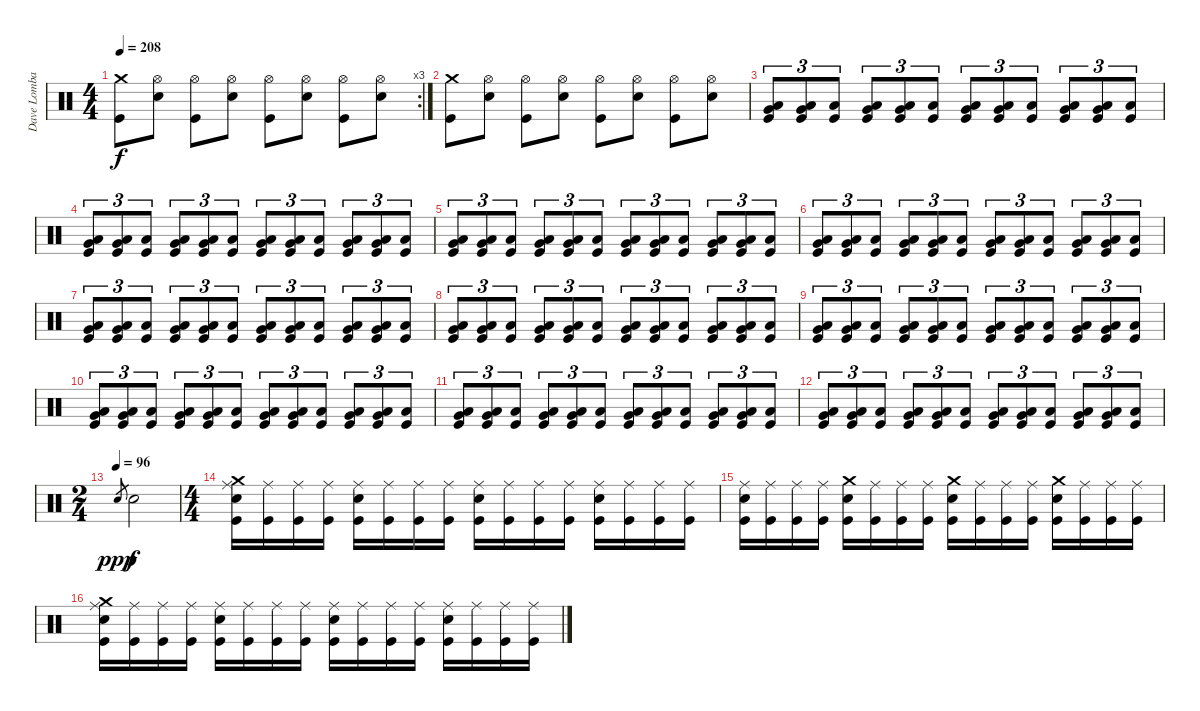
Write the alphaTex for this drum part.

\track ("Dave Lombardo (Drum)" "Dave Lomba") {instrument percussion}
\staff {score}
\articulation defaults
\rc 3
\ts (4 4)
\tempo 208
\clef neutral
\ks c
("Crash medium (hit)" "Kick (hit)").8{dy f} ("Snare (hit) 2" "Hi-Hat (open)").8 ("Kick (hit)" "Hi-Hat (open)").8 ("Snare (hit) 2" "Hi-Hat (open)").8 ("Kick (hit)" "Hi-Hat (open)").8 ("Snare (hit) 2" "Hi-Hat (open)").8 ("Kick (hit)" "Hi-Hat (open)").8 ("Snare (hit) 2" "Hi-Hat (open)").8 |
("Crash medium (hit)" "Kick (hit)").8 ("Snare (hit) 2" "Hi-Hat (open)").8 ("Kick (hit)" "Hi-Hat (open)").8 ("Snare (hit) 2" "Hi-Hat (open)").8 ("Kick (hit)" "Hi-Hat (open)").8 ("Snare (hit) 2" "Hi-Hat (open)").8 ("Kick (hit)" "Hi-Hat (open)").8 ("Snare (hit) 2" "Hi-Hat (open)").8 |
("Kick (hit)" "Very Low Tom (hit)" "Low Floor Tom (hit)").8{tu (3 2)} ("Kick (hit)" "Very Low Tom (hit)" "Low Floor Tom (hit)").8{tu (3 2)} ("Kick (hit)" "Low Floor Tom (hit)").8{tu (3 2)} ("Kick (hit)" "Very Low Tom (hit)" "Low Floor Tom (hit)").8{tu (3 2)} ("Kick (hit)" "Very Low Tom (hit)" "Low Floor Tom (hit)").8{tu (3 2)} ("Kick (hit)" "Low Floor Tom (hit)").8{tu (3 2)} ("Kick (hit)" "Very Low Tom (hit)" "Low Floor Tom (hit)").8{tu (3 2)} ("Kick (hit)" "Very Low Tom (hit)" "Low Floor Tom (hit)").8{tu (3 2)} ("Kick (hit)" "Low Floor Tom (hit)").8{tu (3 2)} ("Kick (hit)" "Very Low Tom (hit)" "Low Floor Tom (hit)").8{tu (3 2)} ("Kick (hit)" "Very Low Tom (hit)" "Low Floor Tom (hit)").8{tu (3 2)} ("Kick (hit)" "Low Floor Tom (hit)").8{tu (3 2)} |
("Kick (hit)" "Very Low Tom (hit)" "Low Floor Tom (hit)").8{tu (3 2)} ("Kick (hit)" "Very Low Tom (hit)" "Low Floor Tom (hit)").8{tu (3 2)} ("Kick (hit)" "Low Floor Tom (hit)").8{tu (3 2)} ("Kick (hit)" "Very Low Tom (hit)" "Low Floor Tom (hit)").8{tu (3 2)} ("Kick (hit)" "Very Low Tom (hit)" "Low Floor Tom (hit)").8{tu (3 2)} ("Kick (hit)" "Low Floor Tom (hit)").8{tu (3 2)} ("Kick (hit)" "Very Low Tom (hit)" "Low Floor Tom (hit)").8{tu (3 2)} ("Kick (hit)" "Very Low Tom (hit)" "Low Floor Tom (hit)").8{tu (3 2)} ("Kick (hit)" "Low Floor Tom (hit)").8{tu (3 2)} ("Kick (hit)" "Very Low Tom (hit)" "Low Floor Tom (hit)").8{tu (3 2)} ("Kick (hit)" "Very Low Tom (hit)" "Low Floor Tom (hit)").8{tu (3 2)} ("Kick (hit)" "Low Floor Tom (hit)").8{tu (3 2)} |
("Kick (hit)" "Very Low Tom (hit)" "Low Floor Tom (hit)").8{tu (3 2)} ("Kick (hit)" "Very Low Tom (hit)" "Low Floor Tom (hit)").8{tu (3 2)} ("Kick (hit)" "Low Floor Tom (hit)").8{tu (3 2)} ("Kick (hit)" "Very Low Tom (hit)" "Low Floor Tom (hit)").8{tu (3 2)} ("Kick (hit)" "Very Low Tom (hit)" "Low Floor Tom (hit)").8{tu (3 2)} ("Kick (hit)" "Low Floor Tom (hit)").8{tu (3 2)} ("Kick (hit)" "Very Low Tom (hit)" "Low Floor Tom (hit)").8{tu (3 2)} ("Kick (hit)" "Very Low Tom (hit)" "Low Floor Tom (hit)").8{tu (3 2)} ("Kick (hit)" "Low Floor Tom (hit)").8{tu (3 2)} ("Kick (hit)" "Very Low Tom (hit)" "Low Floor Tom (hit)").8{tu (3 2)} ("Kick (hit)" "Very Low Tom (hit)" "Low Floor Tom (hit)").8{tu (3 2)} ("Kick (hit)" "Low Floor Tom (hit)").8{tu (3 2)} |
("Kick (hit)" "Very Low Tom (hit)" "Low Floor Tom (hit)").8{tu (3 2)} ("Kick (hit)" "Very Low Tom (hit)" "Low Floor Tom (hit)").8{tu (3 2)} ("Kick (hit)" "Low Floor Tom (hit)").8{tu (3 2)} ("Kick (hit)" "Very Low Tom (hit)" "Low Floor Tom (hit)").8{tu (3 2)} ("Kick (hit)" "Very Low Tom (hit)" "Low Floor Tom (hit)").8{tu (3 2)} ("Kick (hit)" "Low Floor Tom (hit)").8{tu (3 2)} ("Kick (hit)" "Very Low Tom (hit)" "Low Floor Tom (hit)").8{tu (3 2)} ("Kick (hit)" "Very Low Tom (hit)" "Low Floor Tom (hit)").8{tu (3 2)} ("Kick (hit)" "Low Floor Tom (hit)").8{tu (3 2)} ("Kick (hit)" "Very Low Tom (hit)" "Low Floor Tom (hit)").8{tu (3 2)} ("Kick (hit)" "Very Low Tom (hit)" "Low Floor Tom (hit)").8{tu (3 2)} ("Kick (hit)" "Low Floor Tom (hit)").8{tu (3 2)} |
("Kick (hit)" "Very Low Tom (hit)" "Low Floor Tom (hit)").8{tu (3 2)} ("Kick (hit)" "Very Low Tom (hit)" "Low Floor Tom (hit)").8{tu (3 2)} ("Kick (hit)" "Low Floor Tom (hit)").8{tu (3 2)} ("Kick (hit)" "Very Low Tom (hit)" "Low Floor Tom (hit)").8{tu (3 2)} ("Kick (hit)" "Very Low Tom (hit)" "Low Floor Tom (hit)").8{tu (3 2)} ("Kick (hit)" "Low Floor Tom (hit)").8{tu (3 2)} ("Kick (hit)" "Very Low Tom (hit)" "Low Floor Tom (hit)").8{tu (3 2)} ("Kick (hit)" "Very Low Tom (hit)" "Low Floor Tom (hit)").8{tu (3 2)} ("Kick (hit)" "Low Floor Tom (hit)").8{tu (3 2)} ("Kick (hit)" "Very Low Tom (hit)" "Low Floor Tom (hit)").8{tu (3 2)} ("Kick (hit)" "Very Low Tom (hit)" "Low Floor Tom (hit)").8{tu (3 2)} ("Kick (hit)" "Low Floor Tom (hit)").8{tu (3 2)} |
("Kick (hit)" "Very Low Tom (hit)" "Low Floor Tom (hit)").8{tu (3 2)} ("Kick (hit)" "Very Low Tom (hit)" "Low Floor Tom (hit)").8{tu (3 2)} ("Kick (hit)" "Low Floor Tom (hit)").8{tu (3 2)} ("Kick (hit)" "Very Low Tom (hit)" "Low Floor Tom (hit)").8{tu (3 2)} ("Kick (hit)" "Very Low Tom (hit)" "Low Floor Tom (hit)").8{tu (3 2)} ("Kick (hit)" "Low Floor Tom (hit)").8{tu (3 2)} ("Kick (hit)" "Very Low Tom (hit)" "Low Floor Tom (hit)").8{tu (3 2)} ("Kick (hit)" "Very Low Tom (hit)" "Low Floor Tom (hit)").8{tu (3 2)} ("Kick (hit)" "Low Floor Tom (hit)").8{tu (3 2)} ("Kick (hit)" "Very Low Tom (hit)" "Low Floor Tom (hit)").8{tu (3 2)} ("Kick (hit)" "Very Low Tom (hit)" "Low Floor Tom (hit)").8{tu (3 2)} ("Kick (hit)" "Low Floor Tom (hit)").8{tu (3 2)} |
("Kick (hit)" "Very Low Tom (hit)" "Low Floor Tom (hit)").8{tu (3 2)} ("Kick (hit)" "Very Low Tom (hit)" "Low Floor Tom (hit)").8{tu (3 2)} ("Kick (hit)" "Low Floor Tom (hit)").8{tu (3 2)} ("Kick (hit)" "Very Low Tom (hit)" "Low Floor Tom (hit)").8{tu (3 2)} ("Kick (hit)" "Very Low Tom (hit)" "Low Floor Tom (hit)").8{tu (3 2)} ("Kick (hit)" "Low Floor Tom (hit)").8{tu (3 2)} ("Kick (hit)" "Very Low Tom (hit)" "Low Floor Tom (hit)").8{tu (3 2)} ("Kick (hit)" "Very Low Tom (hit)" "Low Floor Tom (hit)").8{tu (3 2)} ("Kick (hit)" "Low Floor Tom (hit)").8{tu (3 2)} ("Kick (hit)" "Very Low Tom (hit)" "Low Floor Tom (hit)").8{tu (3 2)} ("Kick (hit)" "Very Low Tom (hit)" "Low Floor Tom (hit)").8{tu (3 2)} ("Kick (hit)" "Low Floor Tom (hit)").8{tu (3 2)} |
("Kick (hit)" "Very Low Tom (hit)" "Low Floor Tom (hit)").8{tu (3 2)} ("Kick (hit)" "Very Low Tom (hit)" "Low Floor Tom (hit)").8{tu (3 2)} ("Kick (hit)" "Low Floor Tom (hit)").8{tu (3 2)} ("Kick (hit)" "Very Low Tom (hit)" "Low Floor Tom (hit)").8{tu (3 2)} ("Kick (hit)" "Very Low Tom (hit)" "Low Floor Tom (hit)").8{tu (3 2)} ("Kick (hit)" "Low Floor Tom (hit)").8{tu (3 2)} ("Kick (hit)" "Very Low Tom (hit)" "Low Floor Tom (hit)").8{tu (3 2)} ("Kick (hit)" "Very Low Tom (hit)" "Low Floor Tom (hit)").8{tu (3 2)} ("Kick (hit)" "Low Floor Tom (hit)").8{tu (3 2)} ("Kick (hit)" "Very Low Tom (hit)" "Low Floor Tom (hit)").8{tu (3 2)} ("Kick (hit)" "Very Low Tom (hit)" "Low Floor Tom (hit)").8{tu (3 2)} ("Kick (hit)" "Low Floor Tom (hit)").8{tu (3 2)} |
("Kick (hit)" "Very Low Tom (hit)" "Low Floor Tom (hit)").8{tu (3 2)} ("Kick (hit)" "Very Low Tom (hit)" "Low Floor Tom (hit)").8{tu (3 2)} ("Kick (hit)" "Low Floor Tom (hit)").8{tu (3 2)} ("Kick (hit)" "Very Low Tom (hit)" "Low Floor Tom (hit)").8{tu (3 2)} ("Kick (hit)" "Very Low Tom (hit)" "Low Floor Tom (hit)").8{tu (3 2)} ("Kick (hit)" "Low Floor Tom (hit)").8{tu (3 2)} ("Kick (hit)" "Very Low Tom (hit)" "Low Floor Tom (hit)").8{tu (3 2)} ("Kick (hit)" "Very Low Tom (hit)" "Low Floor Tom (hit)").8{tu (3 2)} ("Kick (hit)" "Low Floor Tom (hit)").8{tu (3 2)} ("Kick (hit)" "Very Low Tom (hit)" "Low Floor Tom (hit)").8{tu (3 2)} ("Kick (hit)" "Very Low Tom (hit)" "Low Floor Tom (hit)").8{tu (3 2)} ("Kick (hit)" "Low Floor Tom (hit)").8{tu (3 2)} |
("Kick (hit)" "Very Low Tom (hit)" "Low Floor Tom (hit)").8{tu (3 2)} ("Kick (hit)" "Very Low Tom (hit)" "Low Floor Tom (hit)").8{tu (3 2)} ("Kick (hit)" "Low Floor Tom (hit)").8{tu (3 2)} ("Kick (hit)" "Very Low Tom (hit)" "Low Floor Tom (hit)").8{tu (3 2)} ("Kick (hit)" "Very Low Tom (hit)" "Low Floor Tom (hit)").8{tu (3 2)} ("Kick (hit)" "Low Floor Tom (hit)").8{tu (3 2)} ("Kick (hit)" "Very Low Tom (hit)" "Low Floor Tom (hit)").8{tu (3 2)} ("Kick (hit)" "Very Low Tom (hit)" "Low Floor Tom (hit)").8{tu (3 2)} ("Kick (hit)" "Low Floor Tom (hit)").8{tu (3 2)} ("Kick (hit)" "Very Low Tom (hit)" "Low Floor Tom (hit)").8{tu (3 2)} ("Kick (hit)" "Very Low Tom (hit)" "Low Floor Tom (hit)").8{tu (3 2)} ("Kick (hit)" "Low Floor Tom (hit)").8{tu (3 2)} |
\ts (2 4)
\tempo (96)
"Snare (hit)".8{gr dy ppp} "Snare (hit) 2".2{dy f} |
\ts (4 4)
("Crash medium (hit)" "Snare (hit) 2" "Ride (middle)" "Kick (hit)").16 ("Ride (middle)" "Kick (hit)").16 ("Ride (middle)" "Kick (hit)").16 ("Ride (middle)" "Kick (hit)").16 ("Snare (hit) 2" "Ride (middle)" "Kick (hit)").16 ("Ride (middle)" "Kick (hit)").16 ("Ride (middle)" "Kick (hit)").16 ("Ride (middle)" "Kick (hit)").16 ("Snare (hit) 2" "Ride (middle)" "Kick (hit)").16 ("Ride (middle)" "Kick (hit)").16 ("Ride (middle)" "Kick (hit)").16 ("Ride (middle)" "Kick (hit)").16 ("Snare (hit) 2" "Ride (middle)" "Kick (hit)").16 ("Ride (middle)" "Kick (hit)").16 ("Ride (middle)" "Kick (hit)").16 ("Ride (middle)" "Kick (hit)").16 |
("Snare (hit) 2" "Ride (middle)" "Kick (hit)").16 ("Ride (middle)" "Kick (hit)").16 ("Ride (middle)" "Kick (hit)").16 ("Ride (middle)" "Kick (hit)").16 ("Snare (hit) 2" "Crash medium (hit)" "Kick (hit)").16 ("Ride (middle)" "Kick (hit)").16 ("Ride (middle)" "Kick (hit)").16 ("Ride (middle)" "Kick (hit)").16 ("Snare (hit) 2" "Crash medium (hit)" "Kick (hit)").16 ("Ride (middle)" "Kick (hit)").16 ("Ride (middle)" "Kick (hit)").16 ("Ride (middle)" "Kick (hit)").16 ("Snare (hit) 2" "Crash medium (hit)" "Kick (hit)").16 ("Ride (middle)" "Kick (hit)").16 ("Ride (middle)" "Kick (hit)").16 ("Ride (middle)" "Kick (hit)").16 |
("Crash medium (hit)" "Snare (hit) 2" "Ride (middle)" "Kick (hit)").16 ("Ride (middle)" "Kick (hit)").16 ("Ride (middle)" "Kick (hit)").16 ("Ride (middle)" "Kick (hit)").16 ("Snare (hit) 2" "Ride (middle)" "Kick (hit)").16 ("Ride (middle)" "Kick (hit)").16 ("Ride (middle)" "Kick (hit)").16 ("Ride (middle)" "Kick (hit)").16 ("Snare (hit) 2" "Ride (middle)" "Kick (hit)").16 ("Ride (middle)" "Kick (hit)").16 ("Ride (middle)" "Kick (hit)").16 ("Ride (middle)" "Kick (hit)").16 ("Snare (hit) 2" "Ride (middle)" "Kick (hit)").16 ("Ride (middle)" "Kick (hit)").16 ("Ride (middle)" "Kick (hit)").16 ("Ride (middle)" "Kick (hit)").16
